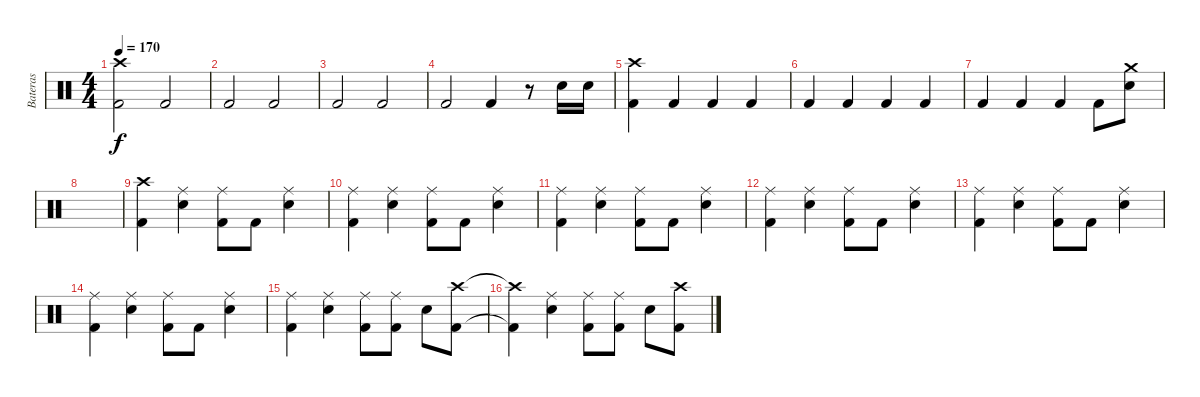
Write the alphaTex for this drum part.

\track ("Bateras" "Bateras") {instrument percussion}
\staff {score}
\articulation defaults
\ts (4 4)
\tempo 170
\clef neutral
\ks c
("Crash high (hit)" "Kick (hit) 2").2{dy f} "Kick (hit) 2".2 |
"Kick (hit) 2".2 "Kick (hit) 2".2 |
"Kick (hit) 2".2 "Kick (hit) 2".2 |
"Kick (hit) 2".2 "Kick (hit) 2".4 r.8 "Snare (hit) 2".16 "Snare (hit) 2".16 |
("Crash high (hit)" "Kick (hit) 2").4 "Kick (hit) 2".4 "Kick (hit) 2".4 "Kick (hit) 2".4 |
"Kick (hit) 2".4 "Kick (hit) 2".4 "Kick (hit) 2".4 "Kick (hit) 2".4 |
"Kick (hit) 2".4 "Kick (hit) 2".4 "Kick (hit) 2".4 "Kick (hit) 2".8 ("Crash medium (hit)" "Snare (hit) 2").8 |
|
("Crash high (hit)" "Kick (hit) 2").4 ("Ride (middle)" "Snare (hit) 2").4 ("Ride (middle)" "Kick (hit) 2").8 "Kick (hit) 2".8 ("Ride (middle)" "Snare (hit) 2").4 |
("Ride (middle)" "Kick (hit) 2").4 ("Ride (middle)" "Snare (hit) 2").4 ("Ride (middle)" "Kick (hit) 2").8 "Kick (hit) 2".8 ("Ride (middle)" "Snare (hit) 2").4 |
("Ride (middle)" "Kick (hit) 2").4 ("Ride (middle)" "Snare (hit) 2").4 ("Ride (middle)" "Kick (hit) 2").8 "Kick (hit) 2".8 ("Ride (middle)" "Snare (hit) 2").4 |
("Ride (middle)" "Kick (hit) 2").4 ("Ride (middle)" "Snare (hit) 2").4 ("Ride (middle)" "Kick (hit) 2").8 "Kick (hit) 2".8 ("Ride (middle)" "Snare (hit) 2").4 |
("Ride (middle)" "Kick (hit) 2").4 ("Ride (middle)" "Snare (hit) 2").4 ("Ride (middle)" "Kick (hit) 2").8 "Kick (hit) 2".8 ("Ride (middle)" "Snare (hit) 2").4 |
("Ride (middle)" "Kick (hit) 2").4 ("Ride (middle)" "Snare (hit) 2").4 ("Ride (middle)" "Kick (hit) 2").8 "Kick (hit) 2".8 ("Ride (middle)" "Snare (hit) 2").4 |
("Ride (middle)" "Kick (hit) 2").4 ("Ride (middle)" "Snare (hit) 2").4 ("Ride (middle)" "Kick (hit) 2").8 ("Ride (middle)" "Kick (hit) 2").8 "Snare (hit) 2".8 ("Crash high (hit)" "Kick (hit) 2").8 |
("Crash high (hit)"{t} "Kick (hit) 2"{t}).4 ("Ride (middle)" "Snare (hit) 2").4 ("Ride (middle)" "Kick (hit) 2").8 ("Ride (middle)" "Kick (hit) 2").8 "Snare (hit) 2".8 ("Crash high (hit)" "Kick (hit) 2").8
